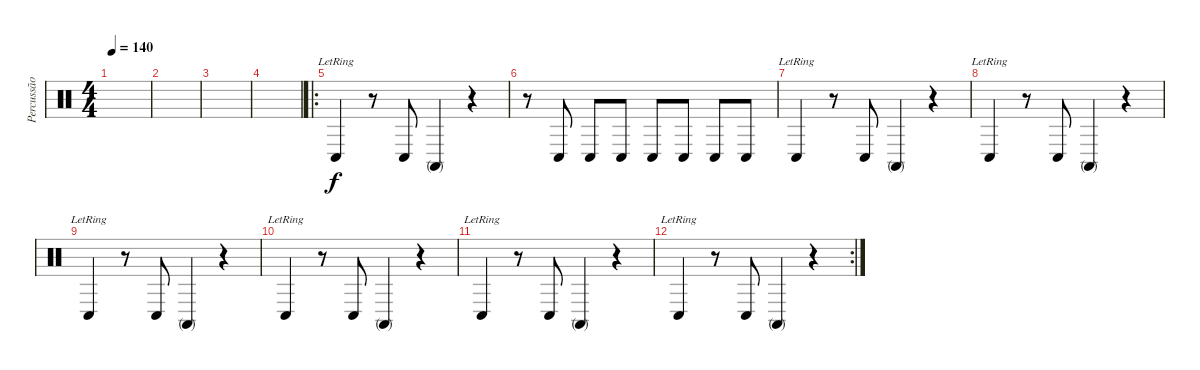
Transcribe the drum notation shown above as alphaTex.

\track ("Percussão" "Percussão") {instrument percussion}
\staff {score}
\articulation defaults
\ts (4 4)
\tempo 140
\clef neutral
\ks c
|
|
|
|
\ro "Conga low (hit)"{lr}.4
r.8 "Conga low (hit)".8 "Conga high (mute)".4 r.4 |
r.8 "Conga low (hit)".8 "Conga low (hit)".8 "Conga low (hit)".8 "Conga low (hit)".8 "Conga low (hit)".8 "Conga low (hit)".8 "Conga low (hit)".8 |
"Conga low (hit)"{lr}.4 r.8 "Conga low (hit)".8 "Conga high (mute)".4 r.4 |
"Conga low (hit)"{lr}.4 r.8 "Conga low (hit)".8 "Conga high (mute)".4 r.4 |
"Conga low (hit)"{lr}.4 r.8 "Conga low (hit)".8 "Conga high (mute)".4 r.4 |
"Conga low (hit)"{lr}.4 r.8 "Conga low (hit)".8 "Conga high (mute)".4 r.4 |
"Conga low (hit)"{lr}.4 r.8 "Conga low (hit)".8 "Conga high (mute)".4 r.4 |
\rc 2 "Conga low (hit)"{lr}.4
r.8 "Conga low (hit)".8 "Conga high (mute)".4 r.4
